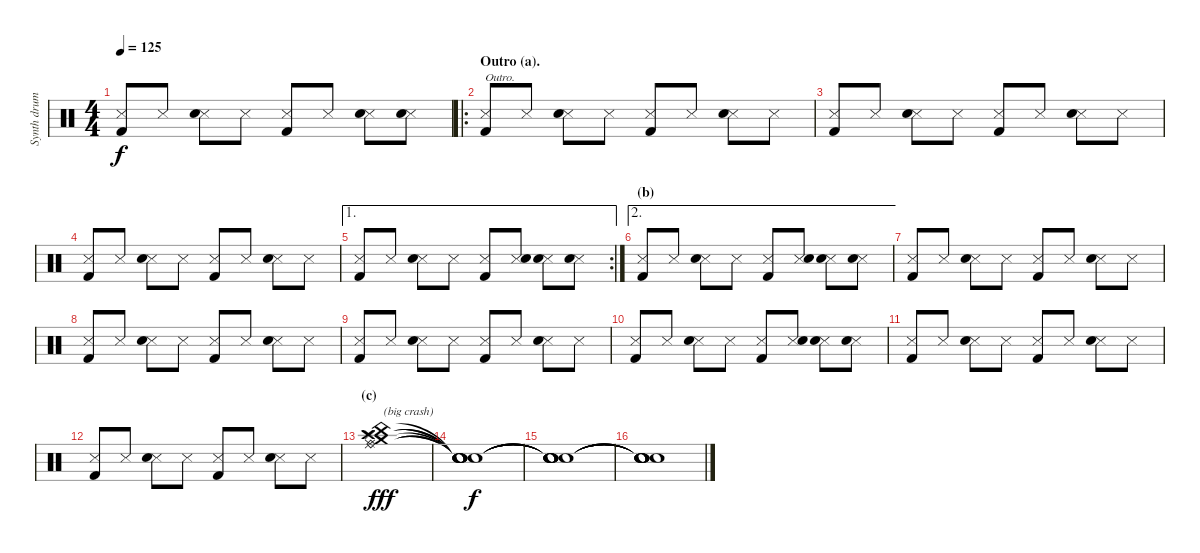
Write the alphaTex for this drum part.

\track ("Synth drums" "Synth drum") {instrument percussion}
\staff {score}
\articulation defaults
\ts (4 4)
\tempo 125
\clef neutral
\ks c
("Snare (side stick) 3" "Kick (hit) 2").8{dy f} "Snare (side stick) 3".8 ("Snare (side stick) 3" "Electric Snare (hit)").8 "Snare (side stick) 3".8 ("Snare (side stick) 3" "Kick (hit) 2").8 "Snare (side stick) 3".8 ("Snare (side stick) 3" "Electric Snare (hit)").8 ("Snare (side stick) 3" "Electric Snare (hit)").8 |
\ro
\section ("" "Outro (a).")
("Snare (side stick) 3" "Kick (hit) 2").8{txt "Outro."} "Snare (side stick) 3".8 ("Snare (side stick) 3" "Electric Snare (hit)").8 "Snare (side stick) 3".8 ("Snare (side stick) 3" "Kick (hit) 2").8 "Snare (side stick) 3".8 ("Snare (side stick) 3" "Electric Snare (hit)").8 "Snare (side stick) 3".8 |
("Snare (side stick) 3" "Kick (hit) 2").8 "Snare (side stick) 3".8 ("Snare (side stick) 3" "Electric Snare (hit)").8 "Snare (side stick) 3".8 ("Snare (side stick) 3" "Kick (hit) 2").8 "Snare (side stick) 3".8 ("Snare (side stick) 3" "Electric Snare (hit)").8 "Snare (side stick) 3".8 |
("Snare (side stick) 3" "Kick (hit) 2").8 "Snare (side stick) 3".8 ("Snare (side stick) 3" "Electric Snare (hit)").8 "Snare (side stick) 3".8 ("Snare (side stick) 3" "Kick (hit) 2").8 "Snare (side stick) 3".8 ("Snare (side stick) 3" "Electric Snare (hit)").8 "Snare (side stick) 3".8 |
\ae 1
\rc 2
("Snare (side stick) 3" "Kick (hit) 2").8 "Snare (side stick) 3".8 ("Snare (side stick) 3" "Electric Snare (hit)").8 "Snare (side stick) 3".8 ("Snare (side stick) 3" "Kick (hit) 2").8 ("Snare (side stick) 3" "Electric Snare (hit)").8 ("Snare (side stick) 3" "Electric Snare (hit)").8 ("Snare (side stick) 3" "Electric Snare (hit)").8 |
\ae 2
\section ("" "(b)")
("Snare (side stick) 3" "Kick (hit) 2").8 "Snare (side stick) 3".8 ("Snare (side stick) 3" "Electric Snare (hit)").8 "Snare (side stick) 3".8 ("Snare (side stick) 3" "Kick (hit) 2").8 ("Snare (side stick) 3" "Electric Snare (hit)").8 ("Snare (side stick) 3" "Electric Snare (hit)").8 ("Snare (side stick) 3" "Electric Snare (hit)").8 |
("Snare (side stick) 3" "Kick (hit) 2").8 "Snare (side stick) 3".8 ("Snare (side stick) 3" "Electric Snare (hit)").8 "Snare (side stick) 3".8 ("Snare (side stick) 3" "Kick (hit) 2").8 "Snare (side stick) 3".8 ("Snare (side stick) 3" "Electric Snare (hit)").8 "Snare (side stick) 3".8 |
("Snare (side stick) 3" "Kick (hit) 2").8 "Snare (side stick) 3".8 ("Snare (side stick) 3" "Electric Snare (hit)").8 "Snare (side stick) 3".8 ("Snare (side stick) 3" "Kick (hit) 2").8 "Snare (side stick) 3".8 ("Snare (side stick) 3" "Electric Snare (hit)").8 "Snare (side stick) 3".8 |
("Snare (side stick) 3" "Kick (hit) 2").8 "Snare (side stick) 3".8 ("Snare (side stick) 3" "Electric Snare (hit)").8 "Snare (side stick) 3".8 ("Snare (side stick) 3" "Kick (hit) 2").8 "Snare (side stick) 3".8 ("Snare (side stick) 3" "Electric Snare (hit)").8 "Snare (side stick) 3".8 |
("Snare (side stick) 3" "Kick (hit) 2").8 "Snare (side stick) 3".8 ("Snare (side stick) 3" "Electric Snare (hit)").8 "Snare (side stick) 3".8 ("Snare (side stick) 3" "Kick (hit) 2").8 ("Snare (side stick) 3" "Electric Snare (hit)").8 ("Snare (side stick) 3" "Electric Snare (hit)").8 ("Snare (side stick) 3" "Electric Snare (hit)").8 |
("Snare (side stick) 3" "Kick (hit) 2").8 "Snare (side stick) 3".8 ("Snare (side stick) 3" "Electric Snare (hit)").8 "Snare (side stick) 3".8 ("Snare (side stick) 3" "Kick (hit) 2").8 "Snare (side stick) 3".8 ("Snare (side stick) 3" "Electric Snare (hit)").8 "Snare (side stick) 3".8 |
("Snare (side stick) 3" "Kick (hit) 2").8 "Snare (side stick) 3".8 ("Snare (side stick) 3" "Electric Snare (hit)").8 "Snare (side stick) 3".8 ("Snare (side stick) 3" "Kick (hit) 2").8 "Snare (side stick) 3".8 ("Snare (side stick) 3" "Electric Snare (hit)").8 "Snare (side stick) 3".8 |
\section ("" "(c)")
("China (hit)" "Ride (middle)" "Ride (bell)" "Splash (hit)" "Crash medium (hit)" "Crash high (hit)").1{txt "(big crash)" dy fff} |
("Snare (hit)"{t} "Snare (hit)"{t} "Snare (hit)"{t} "Snare (hit)"{t} "Snare (hit)"{t} "Snare (hit)"{t}).1{dy f} |
("Snare (hit)"{t} "Snare (hit)"{t} "Snare (hit)"{t} "Snare (hit)"{t} "Snare (hit)"{t} "Snare (hit)"{t}).1 |
("Snare (hit)"{t} "Snare (hit)"{t} "Snare (hit)"{t} "Snare (hit)"{t} "Snare (hit)"{t} "Snare (hit)"{t}).1
